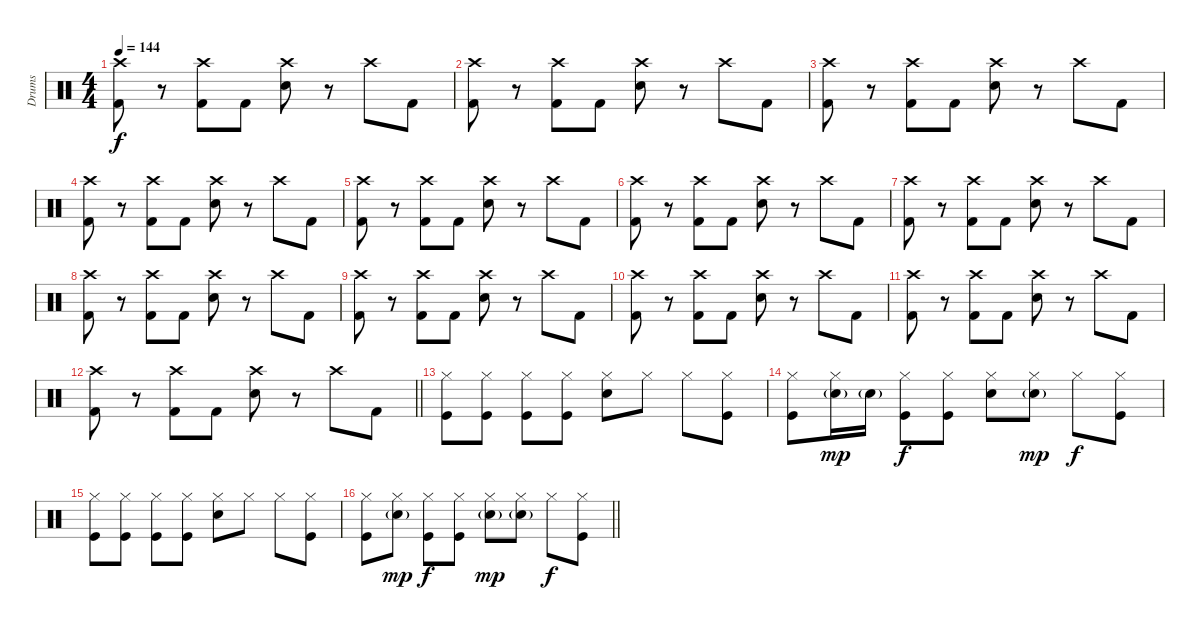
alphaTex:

\track ("Drums" "Drums") {instrument percussion}
\staff {score}
\articulation defaults
\ts (4 4)
\tempo 144
\clef neutral
\ks c
("Crash high (hit)" "Kick (hit) 2").8{dy f} r.8 ("Crash high (hit)" "Kick (hit) 2").8 "Kick (hit) 2".8 ("Crash high (hit)" "Electric Snare (hit)").8 r.8 "Crash high (hit)".8 "Kick (hit) 2".8 |
("Crash high (hit)" "Kick (hit) 2").8 r.8 ("Crash high (hit)" "Kick (hit) 2").8 "Kick (hit) 2".8 ("Crash high (hit)" "Electric Snare (hit)").8 r.8 "Crash high (hit)".8 "Kick (hit) 2".8 |
("Crash high (hit)" "Kick (hit) 2").8 r.8 ("Crash high (hit)" "Kick (hit) 2").8 "Kick (hit) 2".8 ("Crash high (hit)" "Electric Snare (hit)").8 r.8 "Crash high (hit)".8 "Kick (hit) 2".8 |
("Crash high (hit)" "Kick (hit) 2").8 r.8 ("Crash high (hit)" "Kick (hit) 2").8 "Kick (hit) 2".8 ("Crash high (hit)" "Electric Snare (hit)").8 r.8 "Crash high (hit)".8 "Kick (hit) 2".8 |
("Crash high (hit)" "Kick (hit) 2").8 r.8 ("Crash high (hit)" "Kick (hit) 2").8 "Kick (hit) 2".8 ("Crash high (hit)" "Electric Snare (hit)").8 r.8 "Crash high (hit)".8 "Kick (hit) 2".8 |
("Crash high (hit)" "Kick (hit) 2").8 r.8 ("Crash high (hit)" "Kick (hit) 2").8 "Kick (hit) 2".8 ("Crash high (hit)" "Electric Snare (hit)").8 r.8 "Crash high (hit)".8 "Kick (hit) 2".8 |
("Crash high (hit)" "Kick (hit) 2").8 r.8 ("Crash high (hit)" "Kick (hit) 2").8 "Kick (hit) 2".8 ("Crash high (hit)" "Electric Snare (hit)").8 r.8 "Crash high (hit)".8 "Kick (hit) 2".8 |
("Crash high (hit)" "Kick (hit) 2").8 r.8 ("Crash high (hit)" "Kick (hit) 2").8 "Kick (hit) 2".8 ("Crash high (hit)" "Electric Snare (hit)").8 r.8 "Crash high (hit)".8 "Kick (hit) 2".8 |
("Crash high (hit)" "Kick (hit) 2").8 r.8 ("Crash high (hit)" "Kick (hit) 2").8 "Kick (hit) 2".8 ("Crash high (hit)" "Electric Snare (hit)").8 r.8 "Crash high (hit)".8 "Kick (hit) 2".8 |
("Crash high (hit)" "Kick (hit) 2").8 r.8 ("Crash high (hit)" "Kick (hit) 2").8 "Kick (hit) 2".8 ("Crash high (hit)" "Electric Snare (hit)").8 r.8 "Crash high (hit)".8 "Kick (hit) 2".8 |
("Crash high (hit)" "Kick (hit) 2").8 r.8 ("Crash high (hit)" "Kick (hit) 2").8 "Kick (hit) 2".8 ("Crash high (hit)" "Electric Snare (hit)").8 r.8 "Crash high (hit)".8 "Kick (hit) 2".8 |
\barLineRight lightlight
("Crash high (hit)" "Kick (hit) 2").8 r.8 ("Crash high (hit)" "Kick (hit) 2").8 "Kick (hit) 2".8 ("Crash high (hit)" "Electric Snare (hit)").8 r.8 "Crash high (hit)".8 "Kick (hit) 2".8 |
\section ("" "")
("Hi-Hat (closed)" "Kick (hit)").8 ("Hi-Hat (closed)" "Kick (hit)").8 ("Hi-Hat (closed)" "Kick (hit)").8 ("Hi-Hat (closed)" "Kick (hit)").8 ("Hi-Hat (closed)" "Snare (hit) 2").8 "Hi-Hat (closed)".8 "Hi-Hat (closed)".8 ("Hi-Hat (closed)" "Kick (hit)").8 |
("Hi-Hat (closed)" "Kick (hit)").8 ("Hi-Hat (closed)" "Electric Snare (hit)"{g}).16{dy mp} "Electric Snare (hit)"{g}.16 ("Hi-Hat (closed)" "Kick (hit)").8{dy f} ("Hi-Hat (closed)" "Kick (hit)").8 ("Hi-Hat (closed)" "Snare (hit) 2").8 ("Hi-Hat (closed)" "Electric Snare (hit)"{g}).8{dy mp} "Hi-Hat (closed)".8{dy f} ("Hi-Hat (closed)" "Kick (hit)").8 |
("Hi-Hat (closed)" "Kick (hit)").8 ("Hi-Hat (closed)" "Kick (hit)").8 ("Hi-Hat (closed)" "Kick (hit)").8 ("Hi-Hat (closed)" "Kick (hit)").8 ("Hi-Hat (closed)" "Snare (hit) 2").8 "Hi-Hat (closed)".8 "Hi-Hat (closed)".8 ("Hi-Hat (closed)" "Kick (hit)").8 |
\barLineRight lightlight
("Hi-Hat (closed)" "Kick (hit)").8 ("Hi-Hat (closed)" "Electric Snare (hit)"{g}).8{dy mp} ("Hi-Hat (closed)" "Kick (hit)").8{dy f} ("Hi-Hat (closed)" "Kick (hit)").8 ("Hi-Hat (closed)" "Electric Snare (hit)"{g}).8{dy mp} ("Hi-Hat (closed)" "Electric Snare (hit)"{g}).8 "Hi-Hat (closed)".8{dy f} ("Hi-Hat (closed)" "Kick (hit)").8
